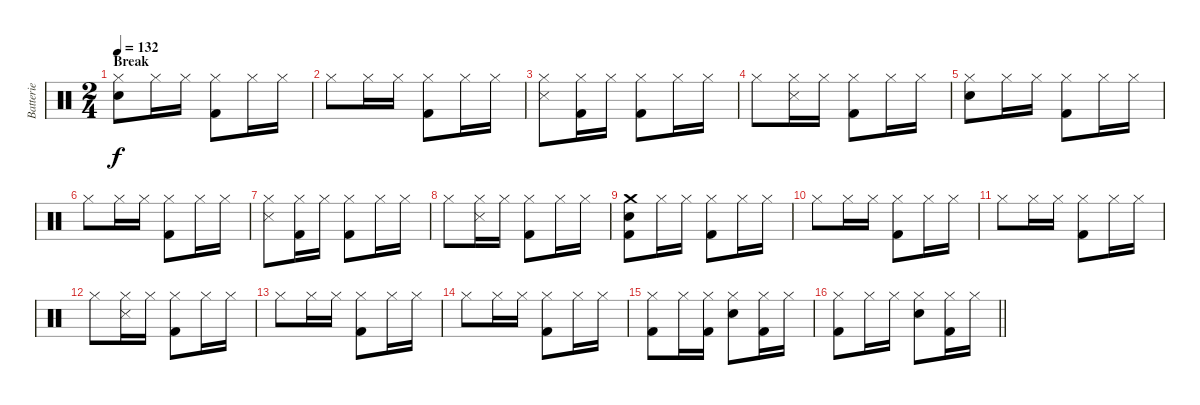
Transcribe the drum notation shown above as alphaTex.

\track ("Batterie" "Batterie") {instrument percussion}
\staff {score}
\articulation defaults
\ts (2 4)
\section ("" "Break")
\tempo 132
\clef neutral
\ks c
("Hi-Hat (closed)" "Snare (hit) 2").8{dy f} "Hi-Hat (closed)".16 "Hi-Hat (closed)".16 ("Hi-Hat (closed)" "Kick (hit) 2").8 "Hi-Hat (closed)".16 "Hi-Hat (closed)".16 |
"Hi-Hat (closed)".8 "Hi-Hat (closed)".16 "Hi-Hat (closed)".16 ("Hi-Hat (closed)" "Kick (hit) 2").8 "Hi-Hat (closed)".16 "Hi-Hat (closed)".16 |
("Hi-Hat (closed)" "Snare (side stick) 3").8 ("Hi-Hat (closed)" "Kick (hit) 2").16 "Hi-Hat (closed)".16 ("Hi-Hat (closed)" "Kick (hit) 2").8 "Hi-Hat (closed)".16 "Hi-Hat (closed)".16 |
"Hi-Hat (closed)".8 ("Hi-Hat (closed)" "Snare (side stick) 3").16 "Hi-Hat (closed)".16 ("Hi-Hat (closed)" "Kick (hit) 2").8 "Hi-Hat (closed)".16 "Hi-Hat (closed)".16 |
("Hi-Hat (closed)" "Snare (hit) 2").8 "Hi-Hat (closed)".16 "Hi-Hat (closed)".16 ("Hi-Hat (closed)" "Kick (hit) 2").8 "Hi-Hat (closed)".16 "Hi-Hat (closed)".16 |
"Hi-Hat (closed)".8 "Hi-Hat (closed)".16 "Hi-Hat (closed)".16 ("Hi-Hat (closed)" "Kick (hit) 2").8 "Hi-Hat (closed)".16 "Hi-Hat (closed)".16 |
("Hi-Hat (closed)" "Snare (side stick) 3").8 ("Hi-Hat (closed)" "Kick (hit) 2").16 "Hi-Hat (closed)".16 ("Hi-Hat (closed)" "Kick (hit) 2").8 "Hi-Hat (closed)".16 "Hi-Hat (closed)".16 |
"Hi-Hat (closed)".8 ("Hi-Hat (closed)" "Snare (side stick) 3").16 "Hi-Hat (closed)".16 ("Hi-Hat (closed)" "Kick (hit) 2").8 "Hi-Hat (closed)".16 "Hi-Hat (closed)".16 |
("Crash medium (hit)" "Snare (hit) 2" "Kick (hit) 2").8 "Hi-Hat (closed)".16 "Hi-Hat (closed)".16 ("Hi-Hat (closed)" "Kick (hit) 2").8 "Hi-Hat (closed)".16 "Hi-Hat (closed)".16 |
"Hi-Hat (closed)".8 "Hi-Hat (closed)".16 "Hi-Hat (closed)".16 ("Hi-Hat (closed)" "Kick (hit) 2").8 "Hi-Hat (closed)".16 "Hi-Hat (closed)".16 |
"Hi-Hat (closed)".8 "Hi-Hat (closed)".16 "Hi-Hat (closed)".16 ("Hi-Hat (closed)" "Kick (hit) 2").8 "Hi-Hat (closed)".16 "Hi-Hat (closed)".16 |
"Hi-Hat (closed)".8 ("Hi-Hat (closed)" "Snare (side stick) 3").16 "Hi-Hat (closed)".16 ("Hi-Hat (closed)" "Kick (hit) 2").8 "Hi-Hat (closed)".16 "Hi-Hat (closed)".16 |
"Hi-Hat (closed)".8 "Hi-Hat (closed)".16 "Hi-Hat (closed)".16 ("Hi-Hat (closed)" "Kick (hit) 2").8 "Hi-Hat (closed)".16 "Hi-Hat (closed)".16 |
"Hi-Hat (closed)".8 "Hi-Hat (closed)".16 "Hi-Hat (closed)".16 ("Hi-Hat (closed)" "Kick (hit) 2").8 "Hi-Hat (closed)".16 "Hi-Hat (closed)".16 |
("Hi-Hat (closed)" "Kick (hit) 2").8 "Hi-Hat (closed)".16 ("Hi-Hat (closed)" "Kick (hit) 2").16 ("Hi-Hat (closed)" "Snare (hit) 2").8 ("Hi-Hat (closed)" "Kick (hit) 2").16 "Hi-Hat (closed)".16 |
\barLineRight lightlight
("Hi-Hat (closed)" "Kick (hit) 2").8 "Hi-Hat (closed)".16 "Hi-Hat (closed)".16 ("Hi-Hat (closed)" "Snare (hit) 2").8 ("Hi-Hat (closed)" "Kick (hit) 2").16 "Hi-Hat (closed)".16
